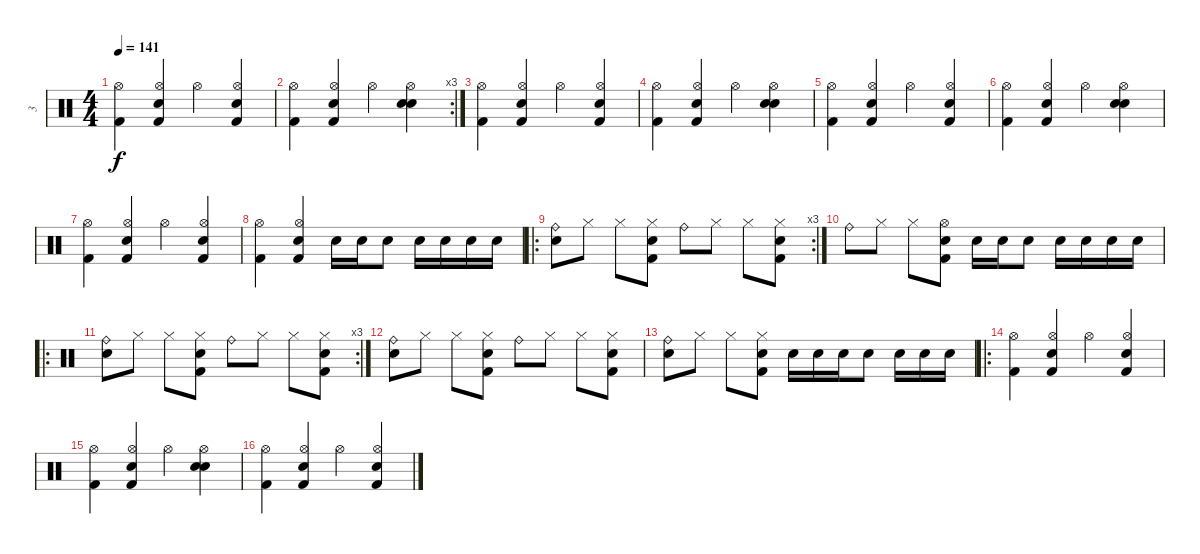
\track ("3" "3") {instrument percussion}
\staff {score}
\articulation defaults
\ts (4 4)
\tempo 141
\clef neutral
\ks c
("Kick (hit) 2" "Hi-Hat (open)").4{dy f} ("Kick (hit) 2" "Snare (hit) 2" "Hi-Hat (open)").4 "Hi-Hat (open)".4 ("Kick (hit) 2" "Snare (hit) 2" "Hi-Hat (open)").4 |
\rc 3
("Kick (hit) 2" "Hi-Hat (open)").4 ("Kick (hit) 2" "Snare (hit) 2" "Hi-Hat (open)").4 "Hi-Hat (open)".4 ("Snare (hit) 2" "Snare (hit) 2" "Hi-Hat (open)").4 |
("Kick (hit) 2" "Hi-Hat (open)").4 ("Kick (hit) 2" "Snare (hit) 2" "Hi-Hat (open)").4 "Hi-Hat (open)".4 ("Kick (hit) 2" "Snare (hit) 2" "Hi-Hat (open)").4 |
("Kick (hit) 2" "Hi-Hat (open)").4 ("Kick (hit) 2" "Snare (hit) 2" "Hi-Hat (open)").4 "Hi-Hat (open)".4 ("Snare (hit) 2" "Snare (hit) 2" "Hi-Hat (open)").4 |
("Kick (hit) 2" "Hi-Hat (open)").4 ("Kick (hit) 2" "Snare (hit) 2" "Hi-Hat (open)").4 "Hi-Hat (open)".4 ("Kick (hit) 2" "Snare (hit) 2" "Hi-Hat (open)").4 |
("Kick (hit) 2" "Hi-Hat (open)").4 ("Kick (hit) 2" "Snare (hit) 2" "Hi-Hat (open)").4 "Hi-Hat (open)".4 ("Snare (hit) 2" "Snare (hit) 2" "Hi-Hat (open)").4 |
("Kick (hit) 2" "Hi-Hat (open)").4 ("Kick (hit) 2" "Snare (hit) 2" "Hi-Hat (open)").4 "Hi-Hat (open)".4 ("Kick (hit) 2" "Snare (hit) 2" "Hi-Hat (open)").4 |
("Kick (hit) 2" "Hi-Hat (open)").4 ("Kick (hit) 2" "Snare (hit) 2" "Hi-Hat (open)").4 "Snare (hit) 2".16 "Snare (hit) 2".16 "Snare (hit) 2".8 "Snare (hit) 2".16 "Snare (hit) 2".16 "Snare (hit) 2".16 "Snare (hit) 2".16 |
\ro
\rc 3
("Ride (bell)" "Snare (hit) 2").8 "Hi-Hat (closed)".8 "Hi-Hat (closed)".8 ("Kick (hit) 2" "Hi-Hat (closed)" "Snare (hit) 2").8 "Ride (bell)".8 "Hi-Hat (closed)".8 "Hi-Hat (closed)".8 ("Kick (hit) 2" "Hi-Hat (closed)" "Snare (hit) 2").8 |
"Ride (bell)".8 "Hi-Hat (closed)".8 "Hi-Hat (closed)".8 ("Kick (hit) 2" "Snare (hit) 2" "Hi-Hat (open)").8 "Snare (hit) 2".16 "Snare (hit) 2".16 "Snare (hit) 2".8 "Snare (hit) 2".16 "Snare (hit) 2".16 "Snare (hit) 2".16 "Snare (hit) 2".16 |
\ro
\rc 3
("Ride (bell)" "Snare (hit) 2").8 "Hi-Hat (closed)".8 "Hi-Hat (closed)".8 ("Kick (hit) 2" "Hi-Hat (closed)" "Snare (hit) 2").8 "Ride (bell)".8 "Hi-Hat (closed)".8 "Hi-Hat (closed)".8 ("Kick (hit) 2" "Hi-Hat (closed)" "Snare (hit) 2").8 |
("Ride (bell)" "Snare (hit) 2").8 "Hi-Hat (closed)".8 "Hi-Hat (closed)".8 ("Kick (hit) 2" "Hi-Hat (closed)" "Snare (hit) 2").8 "Ride (bell)".8 "Hi-Hat (closed)".8 "Hi-Hat (closed)".8 ("Kick (hit) 2" "Hi-Hat (closed)" "Snare (hit) 2").8 |
("Ride (bell)" "Snare (hit) 2").8 "Hi-Hat (closed)".8 "Hi-Hat (closed)".8 ("Kick (hit) 2" "Hi-Hat (closed)" "Snare (hit) 2").8 "Snare (hit) 2".16 "Snare (hit) 2".16 "Snare (hit) 2".16 "Snare (hit) 2".8 "Snare (hit) 2".16 "Snare (hit) 2".16 "Snare (hit) 2".16 |
\ro
("Kick (hit) 2" "Hi-Hat (open)").4 ("Kick (hit) 2" "Snare (hit) 2" "Hi-Hat (open)").4 "Hi-Hat (open)".4 ("Kick (hit) 2" "Snare (hit) 2" "Hi-Hat (open)").4 |
("Kick (hit) 2" "Hi-Hat (open)").4 ("Kick (hit) 2" "Snare (hit) 2" "Hi-Hat (open)").4 "Hi-Hat (open)".4 ("Snare (hit) 2" "Snare (hit) 2" "Hi-Hat (open)").4 |
("Kick (hit) 2" "Hi-Hat (open)").4 ("Kick (hit) 2" "Snare (hit) 2" "Hi-Hat (open)").4 "Hi-Hat (open)".4 ("Kick (hit) 2" "Snare (hit) 2" "Hi-Hat (open)").4
